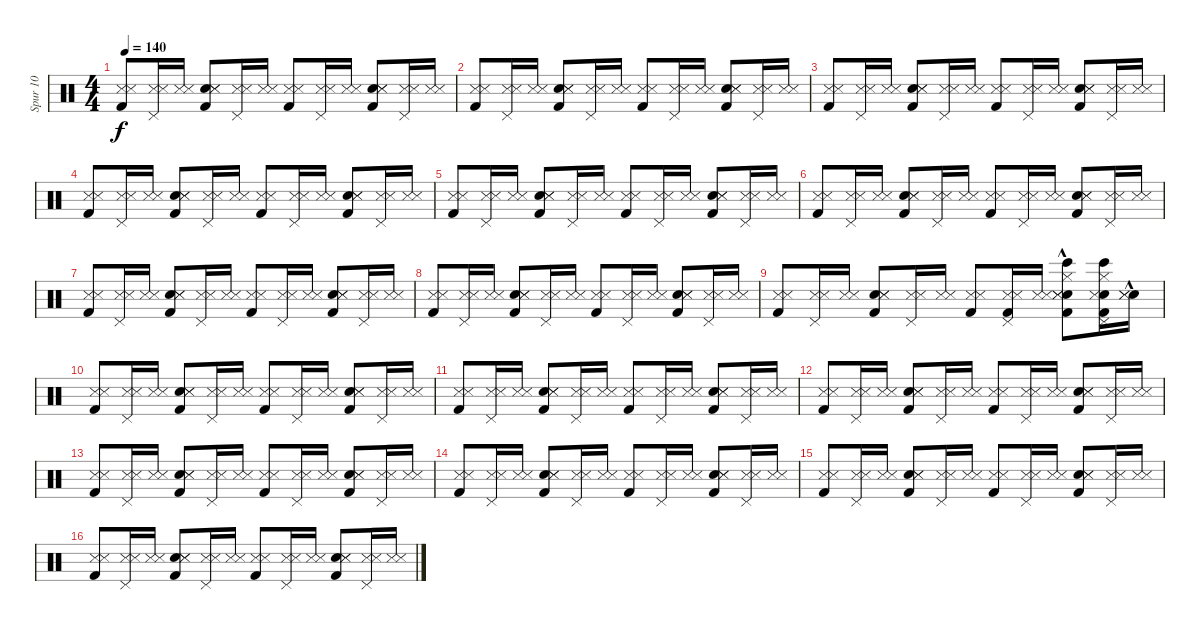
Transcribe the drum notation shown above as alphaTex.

\track ("Spur 10" "Spur 10") {instrument percussion}
\staff {score}
\articulation defaults
\ts (4 4)
\tempo 140
\clef neutral
\ks c
("Kick (hit) 2" "Snare (side stick) 3" "Metronome (hit)").8{dy f} ("Pedal Hi-Hat (hit)" "Snare (side stick) 3" "Metronome (hit)").16 ("Snare (side stick) 3" "Metronome (hit)").16 ("Snare (hit) 2" "Kick (hit) 2" "Snare (side stick) 3" "Metronome (hit)").8 ("Snare (side stick) 3" "Pedal Hi-Hat (hit)" "Metronome (hit)").16 ("Snare (side stick) 3" "Metronome (hit)").16 ("Kick (hit) 2" "Snare (side stick) 3" "Metronome (hit)").8 ("Pedal Hi-Hat (hit)" "Snare (side stick) 3" "Metronome (hit)").16 ("Snare (side stick) 3" "Metronome (hit)").16 ("Snare (hit) 2" "Kick (hit) 2" "Snare (side stick) 3" "Metronome (hit)").8 ("Snare (side stick) 3" "Pedal Hi-Hat (hit)" "Metronome (hit)").16 ("Snare (side stick) 3" "Metronome (hit)").16 |
("Snare (side stick) 3" "Kick (hit) 2" "Metronome (hit)").8 ("Snare (side stick) 3" "Pedal Hi-Hat (hit)" "Metronome (hit)").16 ("Snare (side stick) 3" "Metronome (hit)").16 ("Snare (hit) 2" "Kick (hit) 2" "Snare (side stick) 3" "Metronome (hit)").8 ("Pedal Hi-Hat (hit)" "Snare (side stick) 3" "Metronome (hit)").16 ("Snare (side stick) 3" "Metronome (hit)").16 ("Kick (hit) 2" "Snare (side stick) 3" "Metronome (hit)").8 ("Snare (side stick) 3" "Pedal Hi-Hat (hit)" "Metronome (hit)").16 ("Snare (side stick) 3" "Metronome (hit)").16 ("Snare (hit) 2" "Kick (hit) 2" "Snare (side stick) 3" "Metronome (hit)").8 ("Pedal Hi-Hat (hit)" "Snare (side stick) 3" "Metronome (hit)").16 ("Snare (side stick) 3" "Metronome (hit)").16 |
("Kick (hit) 2" "Snare (side stick) 3" "Metronome (hit)").8 ("Snare (side stick) 3" "Pedal Hi-Hat (hit)" "Metronome (hit)").16 ("Snare (side stick) 3" "Metronome (hit)").16 ("Snare (hit) 2" "Kick (hit) 2" "Snare (side stick) 3" "Metronome (hit)").8 ("Pedal Hi-Hat (hit)" "Snare (side stick) 3" "Metronome (hit)").16 ("Snare (side stick) 3" "Metronome (hit)").16 ("Kick (hit) 2" "Snare (side stick) 3" "Metronome (hit)").8 ("Snare (side stick) 3" "Pedal Hi-Hat (hit)" "Metronome (hit)").16 ("Snare (side stick) 3" "Metronome (hit)").16 ("Snare (hit) 2" "Kick (hit) 2" "Snare (side stick) 3" "Metronome (hit)").8 ("Pedal Hi-Hat (hit)" "Snare (side stick) 3" "Metronome (hit)").16 ("Snare (side stick) 3" "Metronome (hit)").16 |
("Kick (hit) 2" "Snare (side stick) 3" "Metronome (hit)").8 ("Snare (side stick) 3" "Pedal Hi-Hat (hit)" "Metronome (hit)").16 ("Snare (side stick) 3" "Metronome (hit)").16 ("Snare (hit) 2" "Kick (hit) 2" "Snare (side stick) 3" "Metronome (hit)").8 ("Pedal Hi-Hat (hit)" "Snare (side stick) 3" "Metronome (hit)").16 ("Snare (side stick) 3" "Metronome (hit)").16 ("Kick (hit) 2" "Snare (side stick) 3" "Metronome (hit)").8 ("Snare (side stick) 3" "Pedal Hi-Hat (hit)" "Metronome (hit)").16 ("Snare (side stick) 3" "Metronome (hit)").16 ("Snare (hit) 2" "Kick (hit) 2" "Snare (side stick) 3" "Metronome (hit)").8 ("Pedal Hi-Hat (hit)" "Snare (side stick) 3" "Metronome (hit)").16 ("Snare (side stick) 3" "Metronome (hit)").16 |
("Kick (hit) 2" "Snare (side stick) 3" "Metronome (hit)").8 ("Snare (side stick) 3" "Pedal Hi-Hat (hit)" "Metronome (hit)").16 ("Snare (side stick) 3" "Metronome (hit)").16 ("Snare (hit) 2" "Kick (hit) 2" "Snare (side stick) 3" "Metronome (hit)").8 ("Pedal Hi-Hat (hit)" "Snare (side stick) 3" "Metronome (hit)").16 ("Snare (side stick) 3" "Metronome (hit)").16 ("Kick (hit) 2" "Snare (side stick) 3" "Metronome (hit)").8 ("Snare (side stick) 3" "Pedal Hi-Hat (hit)" "Metronome (hit)").16 ("Snare (side stick) 3" "Metronome (hit)").16 ("Snare (hit) 2" "Kick (hit) 2" "Snare (side stick) 3" "Metronome (hit)").8 ("Pedal Hi-Hat (hit)" "Snare (side stick) 3" "Metronome (hit)").16 ("Snare (side stick) 3" "Metronome (hit)").16 |
("Kick (hit) 2" "Snare (side stick) 3" "Metronome (hit)").8 ("Snare (side stick) 3" "Pedal Hi-Hat (hit)" "Metronome (hit)").16 ("Snare (side stick) 3" "Metronome (hit)").16 ("Snare (hit) 2" "Kick (hit) 2" "Snare (side stick) 3" "Metronome (hit)").8 ("Pedal Hi-Hat (hit)" "Snare (side stick) 3" "Metronome (hit)").16 ("Snare (side stick) 3" "Metronome (hit)").16 ("Kick (hit) 2" "Snare (side stick) 3" "Metronome (hit)").8 ("Snare (side stick) 3" "Pedal Hi-Hat (hit)" "Metronome (hit)").16 ("Snare (side stick) 3" "Metronome (hit)").16 ("Snare (hit) 2" "Kick (hit) 2" "Snare (side stick) 3" "Metronome (hit)").8 ("Pedal Hi-Hat (hit)" "Snare (side stick) 3" "Metronome (hit)").16 ("Snare (side stick) 3" "Metronome (hit)").16 |
("Kick (hit) 2" "Snare (side stick) 3" "Metronome (hit)").8 ("Snare (side stick) 3" "Pedal Hi-Hat (hit)" "Metronome (hit)").16 ("Snare (side stick) 3" "Metronome (hit)").16 ("Snare (hit) 2" "Kick (hit) 2" "Snare (side stick) 3" "Metronome (hit)").8 ("Pedal Hi-Hat (hit)" "Snare (side stick) 3" "Metronome (hit)").16 ("Snare (side stick) 3" "Metronome (hit)").16 ("Kick (hit) 2" "Snare (side stick) 3" "Metronome (hit)").8 ("Snare (side stick) 3" "Pedal Hi-Hat (hit)" "Metronome (hit)").16 ("Snare (side stick) 3" "Metronome (hit)").16 ("Snare (hit) 2" "Kick (hit) 2" "Snare (side stick) 3" "Metronome (hit)").8 ("Pedal Hi-Hat (hit)" "Snare (side stick) 3" "Metronome (hit)").16 ("Snare (side stick) 3" "Metronome (hit)").16 |
("Kick (hit) 2" "Snare (side stick) 3" "Metronome (hit)").8 ("Snare (side stick) 3" "Pedal Hi-Hat (hit)" "Metronome (hit)").16 ("Snare (side stick) 3" "Metronome (hit)").16 ("Snare (hit) 2" "Kick (hit) 2" "Snare (side stick) 3" "Metronome (hit)").8 ("Pedal Hi-Hat (hit)" "Snare (side stick) 3" "Metronome (hit)").16 ("Snare (side stick) 3" "Metronome (hit)").16 ("Kick (hit) 2" "Snare (side stick) 3" "Metronome (hit)").8 ("Snare (side stick) 3" "Pedal Hi-Hat (hit)" "Metronome (hit)").16 ("Snare (side stick) 3" "Metronome (hit)").16 ("Snare (hit) 2" "Kick (hit) 2" "Snare (side stick) 3" "Metronome (hit)").8 ("Pedal Hi-Hat (hit)" "Snare (side stick) 3" "Metronome (hit)").16 ("Snare (side stick) 3" "Metronome (hit)").16 |
("Kick (hit) 2" "Snare (side stick) 3" "Metronome (hit)").8 ("Snare (side stick) 3" "Pedal Hi-Hat (hit)" "Metronome (hit)").16 ("Snare (side stick) 3" "Metronome (hit)").16 ("Snare (hit) 2" "Kick (hit) 2" "Snare (side stick) 3" "Metronome (hit)").8 ("Pedal Hi-Hat (hit)" "Snare (side stick) 3" "Metronome (hit)").16 ("Snare (side stick) 3" "Metronome (hit)").16 ("Kick (hit) 2" "Snare (side stick) 3" "Metronome (hit)").8 ("Pedal Hi-Hat (hit)" "Kick (hit) 2" "Snare (side stick) 3" "Metronome (hit)").16 ("Snare (side stick) 3" "Metronome (hit)").16 ("Snare (hit) 2" "Bongo High (hit)" "Hi-Hat (closed)" "Snare (side stick) 3" "Kick (hit) 2" "Metronome (hit)"{hac}).8 ("Snare (hit) 2" "Hi-Hat (closed)" "Bongo High (hit)" "Snare (side stick) 3" "Pedal Hi-Hat (hit)" "Kick (hit) 2").16 ("Snare (hit) 2"{hac} "Snare (side stick) 3" "Metronome (hit)").16 |
("Kick (hit) 2" "Snare (side stick) 3" "Metronome (hit)").8 ("Pedal Hi-Hat (hit)" "Snare (side stick) 3" "Metronome (hit)").16 ("Snare (side stick) 3" "Metronome (hit)").16 ("Snare (hit) 2" "Snare (side stick) 3" "Kick (hit) 2" "Metronome (hit)").8 ("Pedal Hi-Hat (hit)" "Snare (side stick) 3" "Metronome (hit)").16 ("Snare (side stick) 3" "Metronome (hit)").16 ("Kick (hit) 2" "Snare (side stick) 3" "Metronome (hit)").8 ("Pedal Hi-Hat (hit)" "Snare (side stick) 3" "Metronome (hit)").16 ("Snare (side stick) 3" "Metronome (hit)").16 ("Snare (hit) 2" "Kick (hit) 2" "Snare (side stick) 3" "Metronome (hit)").8 ("Pedal Hi-Hat (hit)" "Snare (side stick) 3" "Metronome (hit)").16 ("Snare (side stick) 3" "Metronome (hit)").16 |
("Snare (side stick) 3" "Kick (hit) 2" "Metronome (hit)").8 ("Pedal Hi-Hat (hit)" "Snare (side stick) 3" "Metronome (hit)").16 ("Snare (side stick) 3" "Metronome (hit)").16 ("Snare (hit) 2" "Kick (hit) 2" "Snare (side stick) 3" "Metronome (hit)").8 ("Pedal Hi-Hat (hit)" "Snare (side stick) 3" "Metronome (hit)").16 ("Snare (side stick) 3" "Metronome (hit)").16 ("Kick (hit) 2" "Snare (side stick) 3" "Metronome (hit)").8 ("Snare (side stick) 3" "Pedal Hi-Hat (hit)" "Metronome (hit)").16 ("Snare (side stick) 3" "Metronome (hit)").16 ("Snare (hit) 2" "Kick (hit) 2" "Snare (side stick) 3" "Metronome (hit)").8 ("Snare (side stick) 3" "Pedal Hi-Hat (hit)" "Metronome (hit)").16 ("Snare (side stick) 3" "Metronome (hit)").16 |
("Kick (hit) 2" "Snare (side stick) 3" "Metronome (hit)").8 ("Pedal Hi-Hat (hit)" "Snare (side stick) 3" "Metronome (hit)").16 ("Snare (side stick) 3" "Metronome (hit)").16 ("Snare (hit) 2" "Kick (hit) 2" "Snare (side stick) 3" "Metronome (hit)").8 ("Snare (side stick) 3" "Pedal Hi-Hat (hit)" "Metronome (hit)").16 ("Snare (side stick) 3" "Metronome (hit)").16 ("Snare (side stick) 3" "Kick (hit) 2" "Metronome (hit)").8 ("Pedal Hi-Hat (hit)" "Snare (side stick) 3" "Metronome (hit)").16 ("Snare (side stick) 3" "Metronome (hit)").16 ("Snare (hit) 2" "Kick (hit) 2" "Snare (side stick) 3" "Metronome (hit)").8 ("Pedal Hi-Hat (hit)" "Snare (side stick) 3" "Metronome (hit)").16 ("Snare (side stick) 3" "Metronome (hit)").16 |
("Snare (side stick) 3" "Kick (hit) 2" "Metronome (hit)").8 ("Pedal Hi-Hat (hit)" "Snare (side stick) 3" "Metronome (hit)").16 ("Snare (side stick) 3" "Metronome (hit)").16 ("Snare (hit) 2" "Snare (side stick) 3" "Kick (hit) 2" "Metronome (hit)").8 ("Pedal Hi-Hat (hit)" "Snare (side stick) 3" "Metronome (hit)").16 ("Snare (side stick) 3" "Metronome (hit)").16 ("Kick (hit) 2" "Snare (side stick) 3" "Metronome (hit)").8 ("Pedal Hi-Hat (hit)" "Snare (side stick) 3" "Metronome (hit)").16 ("Snare (side stick) 3" "Metronome (hit)").16 ("Snare (hit) 2" "Snare (side stick) 3" "Kick (hit) 2" "Metronome (hit)").8 ("Pedal Hi-Hat (hit)" "Snare (side stick) 3" "Metronome (hit)").16 ("Snare (side stick) 3" "Metronome (hit)").16 |
("Kick (hit) 2" "Snare (side stick) 3" "Metronome (hit)").8 ("Snare (side stick) 3" "Pedal Hi-Hat (hit)" "Metronome (hit)").16 ("Snare (side stick) 3" "Metronome (hit)").16 ("Snare (hit) 2" "Kick (hit) 2" "Snare (side stick) 3" "Metronome (hit)").8 ("Pedal Hi-Hat (hit)" "Snare (side stick) 3" "Metronome (hit)").16 ("Snare (side stick) 3" "Metronome (hit)").16 ("Kick (hit) 2" "Snare (side stick) 3" "Metronome (hit)").8 ("Pedal Hi-Hat (hit)" "Snare (side stick) 3" "Metronome (hit)").16 ("Snare (side stick) 3" "Metronome (hit)").16 ("Snare (hit) 2" "Kick (hit) 2" "Snare (side stick) 3" "Metronome (hit)").8 ("Pedal Hi-Hat (hit)" "Snare (side stick) 3" "Metronome (hit)").16 ("Snare (side stick) 3" "Metronome (hit)").16 |
("Snare (side stick) 3" "Kick (hit) 2" "Metronome (hit)").8 ("Snare (side stick) 3" "Pedal Hi-Hat (hit)" "Metronome (hit)").16 ("Snare (side stick) 3" "Metronome (hit)").16 ("Snare (hit) 2" "Kick (hit) 2" "Snare (side stick) 3" "Metronome (hit)").8 ("Pedal Hi-Hat (hit)" "Snare (side stick) 3" "Metronome (hit)").16 ("Snare (side stick) 3" "Metronome (hit)").16 ("Kick (hit) 2" "Snare (side stick) 3" "Metronome (hit)").8 ("Pedal Hi-Hat (hit)" "Snare (side stick) 3" "Metronome (hit)").16 ("Snare (side stick) 3" "Metronome (hit)").16 ("Snare (hit) 2" "Kick (hit) 2" "Snare (side stick) 3" "Metronome (hit)").8 ("Pedal Hi-Hat (hit)" "Snare (side stick) 3" "Metronome (hit)").16 ("Snare (side stick) 3" "Metronome (hit)").16 |
("Kick (hit) 2" "Snare (side stick) 3" "Metronome (hit)").8 ("Snare (side stick) 3" "Pedal Hi-Hat (hit)" "Metronome (hit)").16 ("Snare (side stick) 3" "Metronome (hit)").16 ("Snare (hit) 2" "Kick (hit) 2" "Snare (side stick) 3" "Metronome (hit)").8 ("Pedal Hi-Hat (hit)" "Snare (side stick) 3" "Metronome (hit)").16 ("Snare (side stick) 3" "Metronome (hit)").16 ("Kick (hit) 2" "Snare (side stick) 3" "Metronome (hit)").8 ("Pedal Hi-Hat (hit)" "Snare (side stick) 3" "Metronome (hit)").16 ("Snare (side stick) 3" "Metronome (hit)").16 ("Snare (hit) 2" "Snare (side stick) 3" "Kick (hit) 2" "Metronome (hit)").8 ("Pedal Hi-Hat (hit)" "Snare (side stick) 3" "Metronome (hit)").16 ("Snare (side stick) 3" "Metronome (hit)").16
